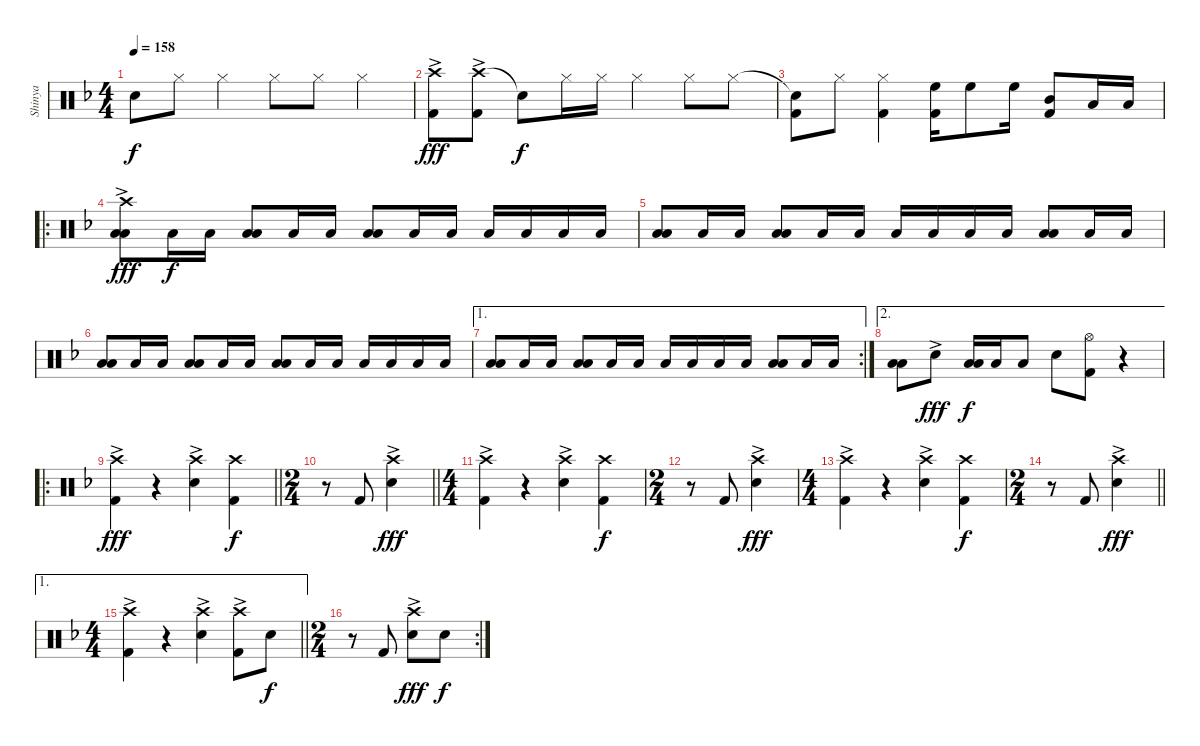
\track ("Shinya" "Shinya") {instrument percussion}
\staff {score}
\articulation defaults
\ts (4 4)
\tempo 158
\clef neutral
\ks f "Snare (hit)"{t}.8{dy f} "Hi-Hat (closed)".8 "Hi-Hat (closed)".4 "Hi-Hat (closed)".8 "Hi-Hat (closed)".8 "Hi-Hat (closed)".4
|
("Crash high (hit)"{ac} "Kick (hit) 2").8{dy fff} ("Crash high (hit)"{ac} "Kick (hit) 2").8 "Snare (hit)"{t}.8{dy f} "Hi-Hat (closed)".16 "Hi-Hat (closed)".16 "Hi-Hat (closed)".4 "Hi-Hat (closed)".8 "Hi-Hat (closed)".8 |
("Snare (hit)"{t} "Kick (hit) 2").8 "Hi-Hat (closed)".8 ("Hi-Hat (closed)" "Kick (hit) 2").4 ("High Floor Tom (hit)" "Kick (hit) 2").16 "High Floor Tom (hit)".8 "High Floor Tom (hit)".16 ("Mid Tom (hit)" "Kick (hit) 2").8 "Low Tom (hit)".16 "Low Tom (hit)".16 |
\ro
("Crash high (hit)"{ac} "Low Tom (hit)" "Low Floor Tom (hit)").8{dy fff} "Low Tom (hit)".16{dy f} "Low Tom (hit)".16 ("Low Tom (hit)" "Low Floor Tom (hit)").8 "Low Tom (hit)".16 "Low Tom (hit)".16 ("Low Tom (hit)" "Low Floor Tom (hit)").8 "Low Tom (hit)".16 "Low Tom (hit)".16 "Low Tom (hit)".16 "Low Tom (hit)".16 "Low Tom (hit)".16 "Low Tom (hit)".16 |
("Low Tom (hit)" "Low Floor Tom (hit)").8 "Low Tom (hit)".16 "Low Tom (hit)".16 ("Low Tom (hit)" "Low Floor Tom (hit)").8 "Low Tom (hit)".16 "Low Tom (hit)".16 "Low Tom (hit)".16 "Low Tom (hit)".16 "Low Tom (hit)".16 "Low Tom (hit)".16 ("Low Tom (hit)" "Low Floor Tom (hit)").8 "Low Tom (hit)".16 "Low Tom (hit)".16 |
("Low Tom (hit)" "Low Floor Tom (hit)").8 "Low Tom (hit)".16 "Low Tom (hit)".16 ("Low Tom (hit)" "Low Floor Tom (hit)").8 "Low Tom (hit)".16 "Low Tom (hit)".16 ("Low Tom (hit)" "Low Floor Tom (hit)").8 "Low Tom (hit)".16 "Low Tom (hit)".16 "Low Tom (hit)".16 "Low Tom (hit)".16 "Low Tom (hit)".16 "Low Tom (hit)".16 |
\ae 1
\rc 2
("Low Tom (hit)" "Low Floor Tom (hit)").8 "Low Tom (hit)".16 "Low Tom (hit)".16 ("Low Tom (hit)" "Low Floor Tom (hit)").8 "Low Tom (hit)".16 "Low Tom (hit)".16 "Low Tom (hit)".16 "Low Tom (hit)".16 "Low Tom (hit)".16 "Low Tom (hit)".16 ("Low Tom (hit)" "Low Floor Tom (hit)").8 "Low Tom (hit)".16 "Low Tom (hit)".16 |
\ae 2
("Low Tom (hit)" "Low Floor Tom (hit)").8 "Snare (hit) 2"{ac}.8{dy fff} ("Low Tom (hit)" "Low Floor Tom (hit)").16{dy f} "Low Tom (hit)".16 "Low Tom (hit)".8 "Snare (hit) 2".8 ("Hi-Hat (open)" "Kick (hit) 2").8 r.4 |
\ro
\barLineRight lightlight
("Crash high (hit)"{ac} "Kick (hit) 2").4{dy fff} r.4 ("Crash high (hit)"{ac} "Snare (hit) 2").4 ("Crash high (hit)" "Kick (hit) 2").4{dy f} |
\ts (2 4)
\barLineRight lightlight
r.8 "Kick (hit) 2".8 ("Crash high (hit)"{ac} "Snare (hit) 2").4{dy fff} |
\ts (4 4)
("Crash high (hit)"{ac} "Kick (hit) 2").4 r.4 ("Crash high (hit)"{ac} "Snare (hit) 2").4 ("Crash high (hit)" "Kick (hit) 2").4{dy f} |
\ts (2 4)
r.8 "Kick (hit) 2".8 ("Crash high (hit)"{ac} "Snare (hit) 2").4{dy fff} |
\ts (4 4)
("Crash high (hit)"{ac} "Kick (hit) 2").4 r.4 ("Crash high (hit)"{ac} "Snare (hit) 2").4 ("Crash high (hit)" "Kick (hit) 2").4{dy f} |
\ts (2 4)
\barLineRight lightlight
r.8 "Kick (hit) 2".8 ("Crash high (hit)"{ac} "Snare (hit) 2").4{dy fff} |
\ae 1
\ts (4 4)
\barLineRight lightlight
("Crash high (hit)"{ac} "Kick (hit) 2").4 r.4 ("Crash high (hit)"{ac} "Snare (hit) 2").4 ("Crash high (hit)"{ac} "Kick (hit) 2").8 "Snare (hit) 2".8{dy f} |
\rc 2
\ts (2 4)
r.8 "Kick (hit) 2".8 ("Crash high (hit)"{ac} "Snare (hit) 2").8{dy fff} "Snare (hit) 2".8{dy f}
